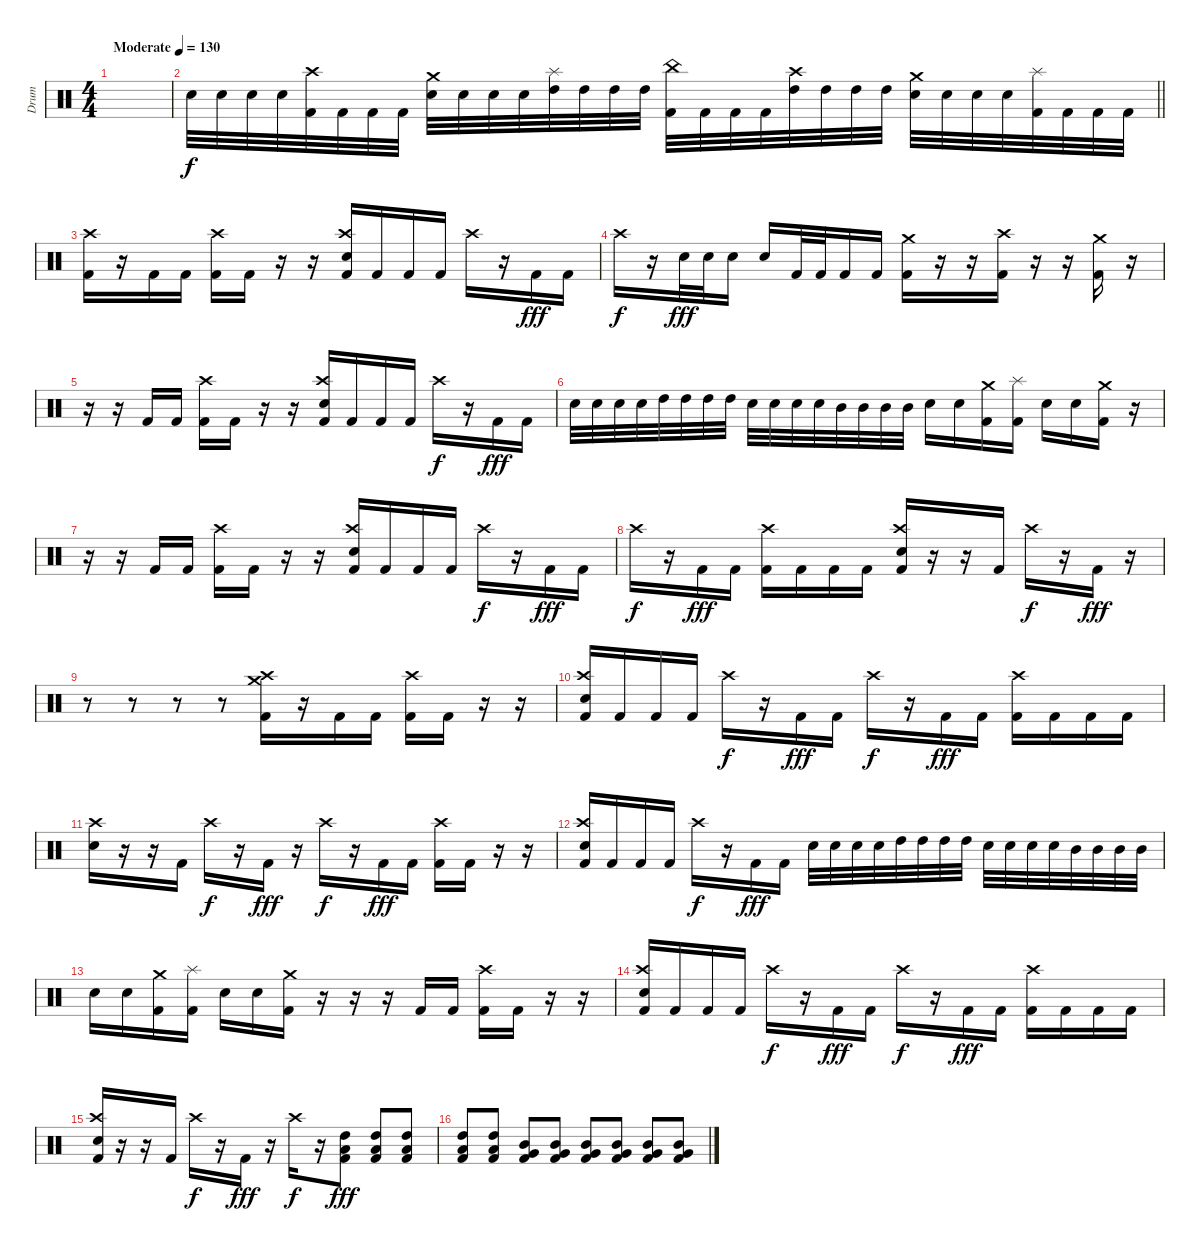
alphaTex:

\track ("Drum" "Drum") {instrument percussion}
\staff {score}
\articulation defaults
\ts (4 4)
\tempo (130 "Moderate")
\clef neutral
\ks c
|
\barLineRight lightlight "Electric Snare (hit)".32 "Electric Snare (hit)".32 "Electric Snare (hit)".32 "Electric Snare (hit)".32
("Crash high (hit)" "Kick (hit) 2").32 "Kick (hit) 2".32 "Kick (hit) 2".32 "Kick (hit) 2".32 ("Crash medium (hit)" "Electric Snare (hit)").32 "Electric Snare (hit)".32 "Electric Snare (hit)".32 "Electric Snare (hit)".32 ("Splash (hit)" "High Tom (hit)").32 "High Tom (hit)".32 "High Tom (hit)".32 "High Tom (hit)".32 ("China (hit)" "Kick (hit) 2").32 "Kick (hit) 2".32 "Kick (hit) 2".32 "Kick (hit) 2".32 ("Crash high (hit)" "High Tom (hit)").32 "High Tom (hit)".32 "High Tom (hit)".32 "High Tom (hit)".32 ("Crash medium (hit)" "Electric Snare (hit)").32 "Electric Snare (hit)".32 "Electric Snare (hit)".32 "Electric Snare (hit)".32 ("Splash (hit)" "Kick (hit) 2").32 "Kick (hit) 2".32 "Kick (hit) 2".32 "Kick (hit) 2".32 |
\section ("" "")
("Crash high (hit)" "Kick (hit) 2").16 r.16 "Kick (hit) 2".16 "Kick (hit) 2".16 ("Crash high (hit)" "Kick (hit) 2").16 "Kick (hit) 2".16 r.16 r.16 ("Crash high (hit)" "Electric Snare (hit)" "Kick (hit) 2").16 "Kick (hit) 2".16 "Kick (hit) 2".16 "Kick (hit) 2".16 "Crash high (hit)".16{dy f} r.16 "Kick (hit) 2".16{dy fff} "Kick (hit) 2".16 |
"Crash high (hit)".16{dy f} r.16 "Electric Snare (hit)".32{dy fff} "Electric Snare (hit)".32 "Electric Snare (hit)".16 "Electric Snare (hit)".16 "Kick (hit) 2".32 "Kick (hit) 2".32 "Kick (hit) 2".16 "Kick (hit) 2".16 ("Crash medium (hit)" "Kick (hit) 2").16 r.16 r.16 ("Crash high (hit)" "Kick (hit) 2").16 r.16 r.16 ("Crash medium (hit)" "Kick (hit) 2").16 r.16 |
r.16 r.16 "Kick (hit) 2".16 "Kick (hit) 2".16 ("Crash high (hit)" "Kick (hit) 2").16 "Kick (hit) 2".16 r.16 r.16 ("Crash high (hit)" "Electric Snare (hit)" "Kick (hit) 2").16 "Kick (hit) 2".16 "Kick (hit) 2".16 "Kick (hit) 2".16 "Crash high (hit)".16{dy f} r.16 "Kick (hit) 2".16{dy fff} "Kick (hit) 2".16 |
"Electric Snare (hit)".32 "Electric Snare (hit)".32 "Electric Snare (hit)".32 "Electric Snare (hit)".32 "High Tom (hit)".32 "High Tom (hit)".32 "High Tom (hit)".32 "High Tom (hit)".32 "Electric Snare (hit)".32 "Electric Snare (hit)".32 "Electric Snare (hit)".32 "Electric Snare (hit)".32 "Mid Tom (hit)".32 "Mid Tom (hit)".32 "Mid Tom (hit)".32 "Mid Tom (hit)".32 "Electric Snare (hit)".16 "Electric Snare (hit)".16 ("Crash medium (hit)" "Kick (hit) 2").16 ("Splash (hit)" "Kick (hit) 2").16 "Electric Snare (hit)".16 "Electric Snare (hit)".16 ("Crash medium (hit)" "Kick (hit) 2").16 r.16 |
r.16 r.16 "Kick (hit) 2".16 "Kick (hit) 2".16 ("Crash high (hit)" "Kick (hit) 2").16 "Kick (hit) 2".16 r.16 r.16 ("Crash high (hit)" "Electric Snare (hit)" "Kick (hit) 2").16 "Kick (hit) 2".16 "Kick (hit) 2".16 "Kick (hit) 2".16 "Crash high (hit)".16{dy f} r.16 "Kick (hit) 2".16{dy fff} "Kick (hit) 2".16 |
"Crash high (hit)".16{dy f} r.16 "Kick (hit) 2".16{dy fff} "Kick (hit) 2".16 ("Crash high (hit)" "Kick (hit) 2").16 "Kick (hit) 2".16 "Kick (hit) 2".16 "Kick (hit) 2".16 ("Crash high (hit)" "Electric Snare (hit)" "Kick (hit) 2").16 r.16 r.16 "Kick (hit) 2".16 "Crash high (hit)".16{dy f} r.16 "Kick (hit) 2".16{dy fff} r.16 |
r.8 r.8 r.8 r.8 ("Crash high (hit)" "Crash medium (hit)" "Kick (hit) 2").16 r.16 "Kick (hit) 2".16 "Kick (hit) 2".16 ("Crash high (hit)" "Kick (hit) 2").16 "Kick (hit) 2".16 r.16 r.16 |
("Crash high (hit)" "Electric Snare (hit)" "Kick (hit) 2").16 "Kick (hit) 2".16 "Kick (hit) 2".16 "Kick (hit) 2".16 "Crash high (hit)".16{dy f} r.16 "Kick (hit) 2".16{dy fff} "Kick (hit) 2".16 "Crash high (hit)".16{dy f} r.16 "Kick (hit) 2".16{dy fff} "Kick (hit) 2".16 ("Crash high (hit)" "Kick (hit) 2").16 "Kick (hit) 2".16 "Kick (hit) 2".16 "Kick (hit) 2".16 |
("Crash high (hit)" "Electric Snare (hit)").16 r.16 r.16 "Kick (hit) 2".16 "Crash high (hit)".16{dy f} r.16 "Kick (hit) 2".16{dy fff} r.16 "Crash high (hit)".16{dy f} r.16 "Kick (hit) 2".16{dy fff} "Kick (hit) 2".16 ("Crash high (hit)" "Kick (hit) 2").16 "Kick (hit) 2".16 r.16 r.16 |
("Crash high (hit)" "Electric Snare (hit)" "Kick (hit) 2").16 "Kick (hit) 2".16 "Kick (hit) 2".16 "Kick (hit) 2".16 "Crash high (hit)".16{dy f} r.16 "Kick (hit) 2".16{dy fff} "Kick (hit) 2".16 "Electric Snare (hit)".32 "Electric Snare (hit)".32 "Electric Snare (hit)".32 "Electric Snare (hit)".32 "High Tom (hit)".32 "High Tom (hit)".32 "High Tom (hit)".32 "High Tom (hit)".32 "Electric Snare (hit)".32 "Electric Snare (hit)".32 "Electric Snare (hit)".32 "Electric Snare (hit)".32 "Mid Tom (hit)".32 "Mid Tom (hit)".32 "Mid Tom (hit)".32 "Mid Tom (hit)".32 |
"Electric Snare (hit)".16 "Electric Snare (hit)".16 ("Crash medium (hit)" "Kick (hit) 2").16 ("Splash (hit)" "Kick (hit) 2").16 "Electric Snare (hit)".16 "Electric Snare (hit)".16 ("Crash medium (hit)" "Kick (hit) 2").16 r.16 r.16 r.16 "Kick (hit) 2".16 "Kick (hit) 2".16 ("Crash high (hit)" "Kick (hit) 2").16 "Kick (hit) 2".16 r.16 r.16 |
("Crash high (hit)" "Electric Snare (hit)" "Kick (hit) 2").16 "Kick (hit) 2".16 "Kick (hit) 2".16 "Kick (hit) 2".16 "Crash high (hit)".16{dy f} r.16 "Kick (hit) 2".16{dy fff} "Kick (hit) 2".16 "Crash high (hit)".16{dy f} r.16 "Kick (hit) 2".16{dy fff} "Kick (hit) 2".16 ("Crash high (hit)" "Kick (hit) 2").16 "Kick (hit) 2".16 "Kick (hit) 2".16 "Kick (hit) 2".16 |
("Crash high (hit)" "Electric Snare (hit)" "Kick (hit) 2").16 r.16 r.16 "Kick (hit) 2".16 "Crash high (hit)".16{dy f} r.16 "Kick (hit) 2".16{dy fff} r.16 "Crash high (hit)".16{dy f} r.16 ("High Tom (hit)" "Low Tom (hit)" "Kick (hit) 2").8{dy fff} ("High Tom (hit)" "Low Tom (hit)" "Kick (hit) 2").8 ("High Tom (hit)" "Low Tom (hit)" "Kick (hit) 2").8 |
("High Tom (hit)" "Low Tom (hit)" "Kick (hit) 2").8 ("High Tom (hit)" "Low Tom (hit)" "Kick (hit) 2").8 ("Mid Tom (hit)" "Very Low Tom (hit)" "Kick (hit) 2").8 ("Mid Tom (hit)" "Very Low Tom (hit)" "Kick (hit) 2").8 ("Mid Tom (hit)" "Very Low Tom (hit)" "Kick (hit) 2").8 ("Mid Tom (hit)" "Very Low Tom (hit)" "Kick (hit) 2").8 ("Mid Tom (hit)" "Very Low Tom (hit)" "Kick (hit) 2").8 ("Mid Tom (hit)" "Very Low Tom (hit)" "Kick (hit) 2").8
